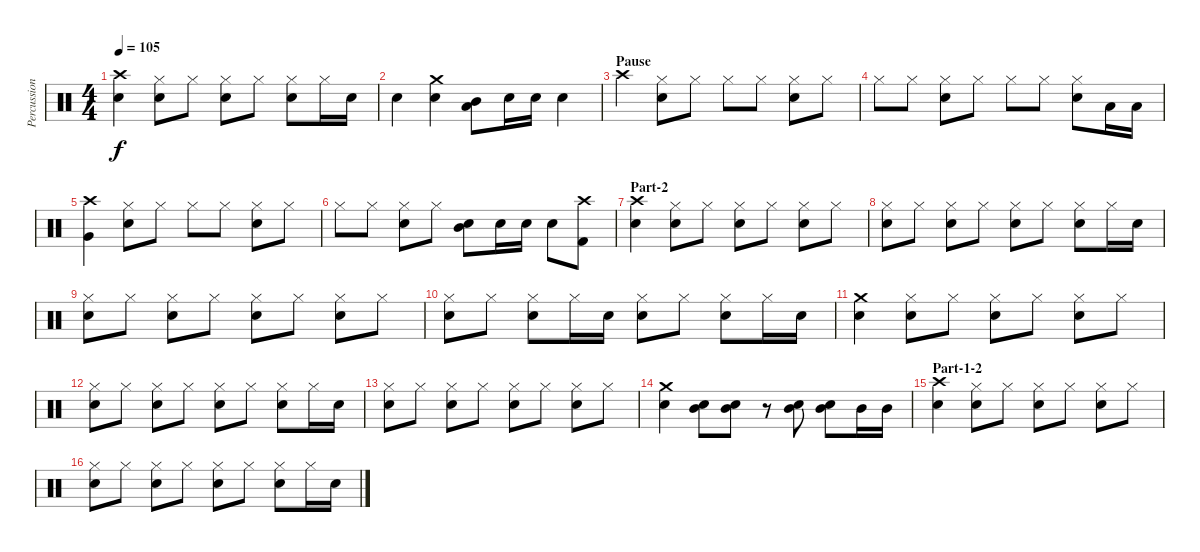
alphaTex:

\track ("Percussions" "Percussion") {instrument percussion}
\staff {score}
\articulation defaults
\ts (4 4)
\tempo 105
\clef neutral
\ks c
("Crash high (hit)" "Snare (hit) 2").4{dy f} ("Hi-Hat (closed)" "Snare (hit) 2").8 "Hi-Hat (closed)".8 ("Hi-Hat (closed)" "Snare (hit) 2").8 "Hi-Hat (closed)".8 ("Hi-Hat (closed)" "Snare (hit) 2").8 "Hi-Hat (closed)".16 "Snare (hit) 2".16 |
"Snare (hit) 2".4 ("Crash medium (hit)" "Snare (hit) 2").4 ("Low Tom (hit)" "Mid Tom (hit)").8 "Snare (hit) 2".16 "Snare (hit) 2".16 "Snare (hit) 2".4 |
\section ("" "Pause")
"Crash high (hit)".4 ("Hi-Hat (closed)" "Snare (hit) 2").8 "Hi-Hat (closed)".8 "Hi-Hat (closed)".8 "Hi-Hat (closed)".8 ("Hi-Hat (closed)" "Snare (hit) 2").8 "Hi-Hat (closed)".8 |
"Hi-Hat (closed)".8 "Hi-Hat (closed)".8 ("Hi-Hat (closed)" "Snare (hit) 2").8 "Hi-Hat (closed)".8 "Hi-Hat (closed)".8 "Hi-Hat (closed)".8 ("Hi-Hat (closed)" "Snare (hit) 2").8 "Low Tom (hit)".16 "Low Tom (hit)".16 |
("Crash high (hit)" "Very Low Tom (hit)").4 ("Hi-Hat (closed)" "Snare (hit) 2").8 "Hi-Hat (closed)".8 "Hi-Hat (closed)".8 "Hi-Hat (closed)".8 ("Hi-Hat (closed)" "Snare (hit) 2").8 "Hi-Hat (closed)".8 |
"Hi-Hat (closed)".8 "Hi-Hat (closed)".8 ("Hi-Hat (closed)" "Snare (hit) 2").8 "Hi-Hat (closed)".8 ("Snare (hit) 2" "Mid Tom (hit)").8 "Snare (hit) 2".16 "Snare (hit) 2".16 "Snare (hit) 2".8 ("Crash high (hit)" "Kick (hit) 2").8 |
\section ("" "Part-2")
("Crash high (hit)" "Snare (hit) 2").4 ("Hi-Hat (closed)" "Snare (hit) 2").8 "Hi-Hat (closed)".8 ("Hi-Hat (closed)" "Snare (hit) 2").8 "Hi-Hat (closed)".8 ("Hi-Hat (closed)" "Snare (hit) 2").8 "Hi-Hat (closed)".8 |
("Hi-Hat (closed)" "Snare (hit) 2").8 "Hi-Hat (closed)".8 ("Hi-Hat (closed)" "Snare (hit) 2").8 "Hi-Hat (closed)".8 ("Hi-Hat (closed)" "Snare (hit) 2").8 "Hi-Hat (closed)".8 ("Hi-Hat (closed)" "Snare (hit) 2").8 "Hi-Hat (closed)".16 "Snare (hit) 2".16 |
("Hi-Hat (closed)" "Snare (hit) 2").8 "Hi-Hat (closed)".8 ("Hi-Hat (closed)" "Snare (hit) 2").8 "Hi-Hat (closed)".8 ("Hi-Hat (closed)" "Snare (hit) 2").8 "Hi-Hat (closed)".8 ("Hi-Hat (closed)" "Snare (hit) 2").8 "Hi-Hat (closed)".8 |
("Hi-Hat (closed)" "Snare (hit) 2").8 "Hi-Hat (closed)".8 ("Hi-Hat (closed)" "Snare (hit) 2").8 "Hi-Hat (closed)".16 "Snare (hit) 2".16 ("Hi-Hat (closed)" "Snare (hit) 2").8 "Hi-Hat (closed)".8 ("Hi-Hat (closed)" "Snare (hit) 2").8 "Hi-Hat (closed)".16 "Snare (hit) 2".16 |
("Crash medium (hit)" "Snare (hit) 2").4 ("Hi-Hat (closed)" "Snare (hit) 2").8 "Hi-Hat (closed)".8 ("Hi-Hat (closed)" "Snare (hit) 2").8 "Hi-Hat (closed)".8 ("Hi-Hat (closed)" "Snare (hit) 2").8 "Hi-Hat (closed)".8 |
("Hi-Hat (closed)" "Snare (hit) 2").8 "Hi-Hat (closed)".8 ("Hi-Hat (closed)" "Snare (hit) 2").8 "Hi-Hat (closed)".8 ("Hi-Hat (closed)" "Snare (hit) 2").8 "Hi-Hat (closed)".8 ("Hi-Hat (closed)" "Snare (hit) 2").8 "Hi-Hat (closed)".16 "Snare (hit) 2".16 |
("Hi-Hat (closed)" "Snare (hit) 2").8 "Hi-Hat (closed)".8 ("Hi-Hat (closed)" "Snare (hit) 2").8 "Hi-Hat (closed)".8 ("Hi-Hat (closed)" "Snare (hit) 2").8 "Hi-Hat (closed)".8 ("Hi-Hat (closed)" "Snare (hit) 2").8 "Hi-Hat (closed)".8 |
("Crash medium (hit)" "Snare (hit) 2").4 ("Mid Tom (hit)" "Snare (hit) 2").8 ("Mid Tom (hit)" "Snare (hit) 2").8 r.8 ("Mid Tom (hit)" "Snare (hit) 2").8 ("Mid Tom (hit)" "Snare (hit) 2").8 "Mid Tom (hit)".16 "Mid Tom (hit)".16 |
\section ("" "Part-1-2")
("Crash high (hit)" "Snare (hit) 2").4 ("Hi-Hat (closed)" "Snare (hit) 2").8 "Hi-Hat (closed)".8 ("Hi-Hat (closed)" "Snare (hit) 2").8 "Hi-Hat (closed)".8 ("Hi-Hat (closed)" "Snare (hit) 2").8 "Hi-Hat (closed)".8 |
("Hi-Hat (closed)" "Snare (hit) 2").8 "Hi-Hat (closed)".8 ("Hi-Hat (closed)" "Snare (hit) 2").8 "Hi-Hat (closed)".8 ("Hi-Hat (closed)" "Snare (hit) 2").8 "Hi-Hat (closed)".8 ("Hi-Hat (closed)" "Snare (hit) 2").8 "Hi-Hat (closed)".16 "Snare (hit) 2".16
